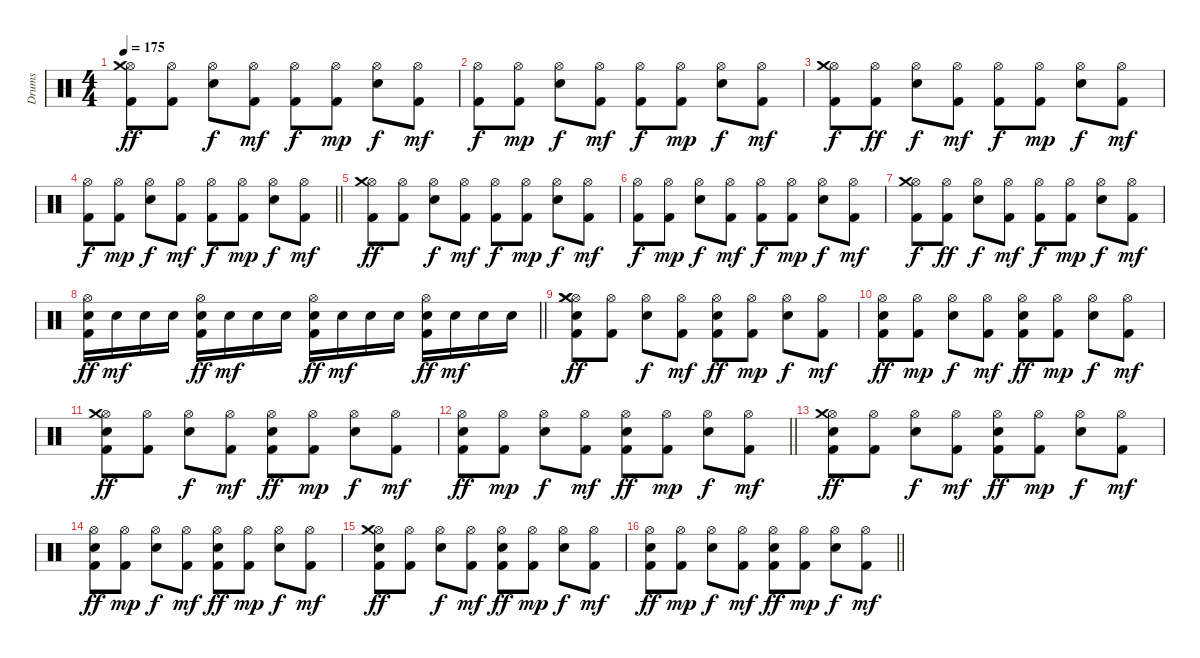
\track ("Drums" "Drums") {instrument percussion}
\staff {score}
\articulation defaults
\ts (4 4)
\tempo 175
\clef neutral
\ks c
("Hi-Hat (open)" "Crash medium (hit)" "Kick (hit) 2").8{dy ff} ("Hi-Hat (open)" "Kick (hit) 2").8 ("Hi-Hat (open)" "Electric Snare (hit)").8{dy f} ("Hi-Hat (open)" "Kick (hit) 2").8{dy mf} ("Hi-Hat (open)" "Kick (hit) 2").8{dy f} ("Hi-Hat (open)" "Kick (hit) 2").8{dy mp} ("Hi-Hat (open)" "Electric Snare (hit)").8{dy f} ("Hi-Hat (open)" "Kick (hit) 2").8{dy mf} |
("Hi-Hat (open)" "Kick (hit) 2").8{dy f} ("Hi-Hat (open)" "Kick (hit) 2").8{dy mp} ("Hi-Hat (open)" "Electric Snare (hit)").8{dy f} ("Hi-Hat (open)" "Kick (hit) 2").8{dy mf} ("Hi-Hat (open)" "Kick (hit) 2").8{dy f} ("Hi-Hat (open)" "Kick (hit) 2").8{dy mp} ("Hi-Hat (open)" "Electric Snare (hit)").8{dy f} ("Hi-Hat (open)" "Kick (hit) 2").8{dy mf} |
("Hi-Hat (open)" "Crash medium (hit)" "Kick (hit) 2").8{dy f} ("Hi-Hat (open)" "Kick (hit) 2").8{dy ff} ("Hi-Hat (open)" "Electric Snare (hit)").8{dy f} ("Hi-Hat (open)" "Kick (hit) 2").8{dy mf} ("Hi-Hat (open)" "Kick (hit) 2").8{dy f} ("Hi-Hat (open)" "Kick (hit) 2").8{dy mp} ("Hi-Hat (open)" "Electric Snare (hit)").8{dy f} ("Hi-Hat (open)" "Kick (hit) 2").8{dy mf} |
\barLineRight lightlight
("Hi-Hat (open)" "Kick (hit) 2").8{dy f} ("Hi-Hat (open)" "Kick (hit) 2").8{dy mp} ("Hi-Hat (open)" "Electric Snare (hit)").8{dy f} ("Hi-Hat (open)" "Kick (hit) 2").8{dy mf} ("Hi-Hat (open)" "Kick (hit) 2").8{dy f} ("Hi-Hat (open)" "Kick (hit) 2").8{dy mp} ("Hi-Hat (open)" "Electric Snare (hit)").8{dy f} ("Hi-Hat (open)" "Kick (hit) 2").8{dy mf} |
("Hi-Hat (open)" "Crash medium (hit)" "Kick (hit) 2").8{dy ff} ("Hi-Hat (open)" "Kick (hit) 2").8 ("Hi-Hat (open)" "Electric Snare (hit)").8{dy f} ("Hi-Hat (open)" "Kick (hit) 2").8{dy mf} ("Hi-Hat (open)" "Kick (hit) 2").8{dy f} ("Hi-Hat (open)" "Kick (hit) 2").8{dy mp} ("Hi-Hat (open)" "Electric Snare (hit)").8{dy f} ("Hi-Hat (open)" "Kick (hit) 2").8{dy mf} |
("Hi-Hat (open)" "Kick (hit) 2").8{dy f} ("Hi-Hat (open)" "Kick (hit) 2").8{dy mp} ("Hi-Hat (open)" "Electric Snare (hit)").8{dy f} ("Hi-Hat (open)" "Kick (hit) 2").8{dy mf} ("Hi-Hat (open)" "Kick (hit) 2").8{dy f} ("Hi-Hat (open)" "Kick (hit) 2").8{dy mp} ("Hi-Hat (open)" "Electric Snare (hit)").8{dy f} ("Hi-Hat (open)" "Kick (hit) 2").8{dy mf} |
("Hi-Hat (open)" "Crash medium (hit)" "Kick (hit) 2").8{dy f} ("Hi-Hat (open)" "Kick (hit) 2").8{dy ff} ("Hi-Hat (open)" "Electric Snare (hit)").8{dy f} ("Hi-Hat (open)" "Kick (hit) 2").8{dy mf} ("Hi-Hat (open)" "Kick (hit) 2").8{dy f} ("Hi-Hat (open)" "Kick (hit) 2").8{dy mp} ("Hi-Hat (open)" "Electric Snare (hit)").8{dy f} ("Hi-Hat (open)" "Kick (hit) 2").8{dy mf} |
\barLineRight lightlight
("Hi-Hat (open)" "Electric Snare (hit)" "Kick (hit) 2").16{dy ff} "Electric Snare (hit)".16{dy mf} "Electric Snare (hit)".16 "Electric Snare (hit)".16 ("Hi-Hat (open)" "Electric Snare (hit)" "Kick (hit) 2").16{dy ff} "Electric Snare (hit)".16{dy mf} "Electric Snare (hit)".16 "Electric Snare (hit)".16 ("Hi-Hat (open)" "Electric Snare (hit)" "Kick (hit) 2").16{dy ff} "Electric Snare (hit)".16{dy mf} "Electric Snare (hit)".16 "Electric Snare (hit)".16 ("Hi-Hat (open)" "Electric Snare (hit)" "Kick (hit) 2").16{dy ff} "Electric Snare (hit)".16{dy mf} "Electric Snare (hit)".16 "Electric Snare (hit)".16 |
("Hi-Hat (open)" "Crash medium (hit)" "Crash medium (hit)" "Electric Snare (hit)" "Kick (hit) 2").8{dy ff} ("Hi-Hat (open)" "Kick (hit) 2").8 ("Hi-Hat (open)" "Electric Snare (hit)").8{dy f} ("Hi-Hat (open)" "Kick (hit) 2").8{dy mf} ("Hi-Hat (open)" "Electric Snare (hit)" "Kick (hit) 2").8{dy ff} ("Hi-Hat (open)" "Kick (hit) 2").8{dy mp} ("Hi-Hat (open)" "Electric Snare (hit)").8{dy f} ("Hi-Hat (open)" "Kick (hit) 2").8{dy mf} |
("Hi-Hat (open)" "Electric Snare (hit)" "Kick (hit) 2").8{dy ff} ("Hi-Hat (open)" "Kick (hit) 2").8{dy mp} ("Hi-Hat (open)" "Electric Snare (hit)").8{dy f} ("Hi-Hat (open)" "Kick (hit) 2").8{dy mf} ("Hi-Hat (open)" "Electric Snare (hit)" "Kick (hit) 2").8{dy ff} ("Hi-Hat (open)" "Kick (hit) 2").8{dy mp} ("Hi-Hat (open)" "Electric Snare (hit)").8{dy f} ("Hi-Hat (open)" "Kick (hit) 2").8{dy mf} |
("Hi-Hat (open)" "Crash medium (hit)" "Electric Snare (hit)" "Kick (hit) 2").8{dy ff} ("Hi-Hat (open)" "Kick (hit) 2").8 ("Hi-Hat (open)" "Electric Snare (hit)").8{dy f} ("Hi-Hat (open)" "Kick (hit) 2").8{dy mf} ("Hi-Hat (open)" "Electric Snare (hit)" "Kick (hit) 2").8{dy ff} ("Hi-Hat (open)" "Kick (hit) 2").8{dy mp} ("Hi-Hat (open)" "Electric Snare (hit)").8{dy f} ("Hi-Hat (open)" "Kick (hit) 2").8{dy mf} |
\barLineRight lightlight
("Hi-Hat (open)" "Electric Snare (hit)" "Kick (hit) 2").8{dy ff} ("Hi-Hat (open)" "Kick (hit) 2").8{dy mp} ("Hi-Hat (open)" "Electric Snare (hit)").8{dy f} ("Hi-Hat (open)" "Kick (hit) 2").8{dy mf} ("Hi-Hat (open)" "Electric Snare (hit)" "Kick (hit) 2").8{dy ff} ("Hi-Hat (open)" "Kick (hit) 2").8{dy mp} ("Hi-Hat (open)" "Electric Snare (hit)").8{dy f} ("Hi-Hat (open)" "Kick (hit) 2").8{dy mf} |
("Hi-Hat (open)" "Crash medium (hit)" "Electric Snare (hit)" "Kick (hit) 2").8{dy ff} ("Hi-Hat (open)" "Kick (hit) 2").8 ("Hi-Hat (open)" "Electric Snare (hit)").8{dy f} ("Hi-Hat (open)" "Kick (hit) 2").8{dy mf} ("Hi-Hat (open)" "Electric Snare (hit)" "Kick (hit) 2").8{dy ff} ("Hi-Hat (open)" "Kick (hit) 2").8{dy mp} ("Hi-Hat (open)" "Electric Snare (hit)").8{dy f} ("Hi-Hat (open)" "Kick (hit) 2").8{dy mf} |
("Hi-Hat (open)" "Electric Snare (hit)" "Kick (hit) 2").8{dy ff} ("Hi-Hat (open)" "Kick (hit) 2").8{dy mp} ("Hi-Hat (open)" "Electric Snare (hit)").8{dy f} ("Hi-Hat (open)" "Kick (hit) 2").8{dy mf} ("Hi-Hat (open)" "Electric Snare (hit)" "Kick (hit) 2").8{dy ff} ("Hi-Hat (open)" "Kick (hit) 2").8{dy mp} ("Hi-Hat (open)" "Electric Snare (hit)").8{dy f} ("Hi-Hat (open)" "Kick (hit) 2").8{dy mf} |
("Hi-Hat (open)" "Crash medium (hit)" "Electric Snare (hit)" "Kick (hit) 2").8{dy ff} ("Hi-Hat (open)" "Kick (hit) 2").8 ("Hi-Hat (open)" "Electric Snare (hit)").8{dy f} ("Hi-Hat (open)" "Kick (hit) 2").8{dy mf} ("Hi-Hat (open)" "Electric Snare (hit)" "Kick (hit) 2").8{dy ff} ("Hi-Hat (open)" "Kick (hit) 2").8{dy mp} ("Hi-Hat (open)" "Electric Snare (hit)").8{dy f} ("Hi-Hat (open)" "Kick (hit) 2").8{dy mf} |
\barLineRight lightlight
("Hi-Hat (open)" "Electric Snare (hit)" "Kick (hit) 2").8{dy ff} ("Hi-Hat (open)" "Kick (hit) 2").8{dy mp} ("Hi-Hat (open)" "Electric Snare (hit)").8{dy f} ("Hi-Hat (open)" "Kick (hit) 2").8{dy mf} ("Hi-Hat (open)" "Electric Snare (hit)" "Kick (hit) 2").8{dy ff} ("Hi-Hat (open)" "Kick (hit) 2").8{dy mp} ("Hi-Hat (open)" "Electric Snare (hit)").8{dy f} ("Hi-Hat (open)" "Kick (hit) 2").8{dy mf}
